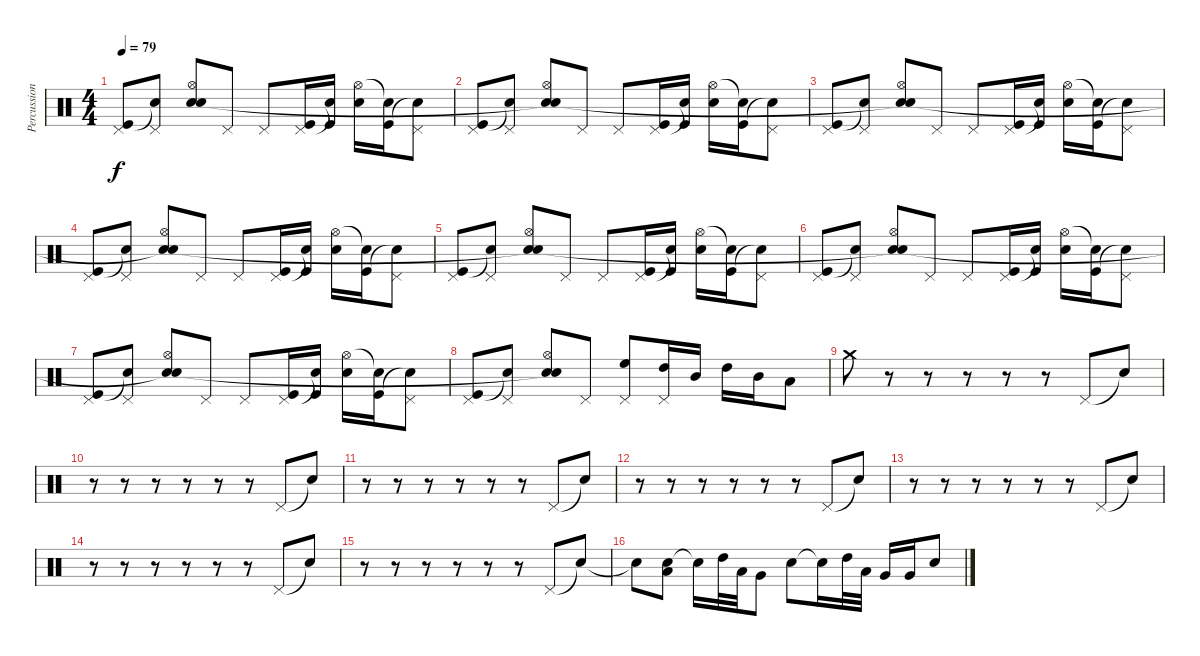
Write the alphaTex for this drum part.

\track ("Percussion" "Percussion") {instrument percussion}
\staff {score}
\articulation defaults
\ts (4 4)
\tempo 79
\clef neutral
\ks c
("Pedal Hi-Hat (hit)" "Kick (hit)").8{dy f} ("Pedal Hi-Hat (hit)" "Snare (hit)"{t}).8 ("Hi-Hat (open)" "Electric Snare (hit)" "Snare (hit)"{t}).8 "Pedal Hi-Hat (hit)".8 "Pedal Hi-Hat (hit)".8 ("Pedal Hi-Hat (hit)" "Kick (hit)").16 ("Snare (hit)"{t} "Kick (hit)").16 ("Hi-Hat (open)" "Electric Snare (hit)").16 ("Snare (hit)"{t} "Kick (hit)").16 ("Pedal Hi-Hat (hit)" "Snare (hit)"{t}).8 |
("Pedal Hi-Hat (hit)" "Kick (hit)").8 ("Pedal Hi-Hat (hit)" "Snare (hit)"{t}).8 ("Hi-Hat (open)" "Electric Snare (hit)" "Snare (hit)"{t}).8 "Pedal Hi-Hat (hit)".8 "Pedal Hi-Hat (hit)".8 ("Pedal Hi-Hat (hit)" "Kick (hit)").16 ("Snare (hit)"{t} "Kick (hit)").16 ("Hi-Hat (open)" "Electric Snare (hit)").16 ("Snare (hit)"{t} "Kick (hit)").16 ("Pedal Hi-Hat (hit)" "Snare (hit)"{t}).8 |
("Pedal Hi-Hat (hit)" "Kick (hit)").8 ("Pedal Hi-Hat (hit)" "Snare (hit)"{t}).8 ("Hi-Hat (open)" "Electric Snare (hit)" "Snare (hit)"{t}).8 "Pedal Hi-Hat (hit)".8 "Pedal Hi-Hat (hit)".8 ("Pedal Hi-Hat (hit)" "Kick (hit)").16 ("Snare (hit)"{t} "Kick (hit)").16 ("Hi-Hat (open)" "Electric Snare (hit)").16 ("Snare (hit)"{t} "Kick (hit)").16 ("Pedal Hi-Hat (hit)" "Snare (hit)"{t}).8 |
("Pedal Hi-Hat (hit)" "Kick (hit)").8 ("Pedal Hi-Hat (hit)" "Snare (hit)"{t}).8 ("Hi-Hat (open)" "Electric Snare (hit)" "Snare (hit)"{t}).8 "Pedal Hi-Hat (hit)".8 "Pedal Hi-Hat (hit)".8 ("Pedal Hi-Hat (hit)" "Kick (hit)").16 ("Snare (hit)"{t} "Kick (hit)").16 ("Hi-Hat (open)" "Electric Snare (hit)").16 ("Snare (hit)"{t} "Kick (hit)").16 ("Pedal Hi-Hat (hit)" "Snare (hit)"{t}).8 |
("Pedal Hi-Hat (hit)" "Kick (hit)").8 ("Pedal Hi-Hat (hit)" "Snare (hit)"{t}).8 ("Hi-Hat (open)" "Electric Snare (hit)" "Snare (hit)"{t}).8 "Pedal Hi-Hat (hit)".8 "Pedal Hi-Hat (hit)".8 ("Pedal Hi-Hat (hit)" "Kick (hit)").16 ("Snare (hit)"{t} "Kick (hit)").16 ("Hi-Hat (open)" "Electric Snare (hit)").16 ("Snare (hit)"{t} "Kick (hit)").16 ("Pedal Hi-Hat (hit)" "Snare (hit)"{t}).8 |
("Pedal Hi-Hat (hit)" "Kick (hit)").8 ("Pedal Hi-Hat (hit)" "Snare (hit)"{t}).8 ("Hi-Hat (open)" "Electric Snare (hit)" "Snare (hit)"{t}).8 "Pedal Hi-Hat (hit)".8 "Pedal Hi-Hat (hit)".8 ("Pedal Hi-Hat (hit)" "Kick (hit)").16 ("Snare (hit)"{t} "Kick (hit)").16 ("Hi-Hat (open)" "Electric Snare (hit)").16 ("Snare (hit)"{t} "Kick (hit)").16 ("Pedal Hi-Hat (hit)" "Snare (hit)"{t}).8 |
("Pedal Hi-Hat (hit)" "Kick (hit)").8 ("Pedal Hi-Hat (hit)" "Snare (hit)"{t}).8 ("Hi-Hat (open)" "Electric Snare (hit)" "Snare (hit)"{t}).8 "Pedal Hi-Hat (hit)".8 "Pedal Hi-Hat (hit)".8 ("Pedal Hi-Hat (hit)" "Kick (hit)").16 ("Snare (hit)"{t} "Kick (hit)").16 ("Hi-Hat (open)" "Electric Snare (hit)").16 ("Snare (hit)"{t} "Kick (hit)").16 ("Pedal Hi-Hat (hit)" "Snare (hit)"{t}).8 |
("Pedal Hi-Hat (hit)" "Kick (hit)").8 ("Pedal Hi-Hat (hit)" "Snare (hit)"{t}).8 ("Hi-Hat (open)" "Electric Snare (hit)" "Snare (hit)"{t}).8 "Pedal Hi-Hat (hit)".8 ("Pedal Hi-Hat (hit)" "High Floor Tom (hit)").8 ("Pedal Hi-Hat (hit)" "High Tom (hit)").16 "Mid Tom (hit)".16 "High Tom (hit)".16 "Mid Tom (hit)".16 "Low Tom (hit)".8 |
"Crash medium (hit)".8 r.8 r.8 r.8 r.8 r.8 "Pedal Hi-Hat (hit)".8 "Snare (hit)"{t}.8 |
r.8 r.8 r.8 r.8 r.8 r.8 "Pedal Hi-Hat (hit)".8 "Snare (hit)"{t}.8 |
r.8 r.8 r.8 r.8 r.8 r.8 "Pedal Hi-Hat (hit)".8 "Snare (hit)"{t}.8 |
r.8 r.8 r.8 r.8 r.8 r.8 "Pedal Hi-Hat (hit)".8 "Snare (hit)"{t}.8 |
r.8 r.8 r.8 r.8 r.8 r.8 "Pedal Hi-Hat (hit)".8 "Snare (hit)"{t}.8 |
r.8 r.8 r.8 r.8 r.8 r.8 "Pedal Hi-Hat (hit)".8 "Snare (hit)"{t}.8 |
r.8 r.8 r.8 r.8 r.8 r.8 "Pedal Hi-Hat (hit)".8 "Snare (hit)"{t}.8 |
"Snare (hit)"{t}.8 ("Electric Snare (hit)" "Low Floor Tom (hit)").8 "Snare (hit)"{t}.16 "High Tom (hit)".32 "Low Tom (hit)".32 "Very Low Tom (hit)".8 "Electric Snare (hit)".8 "Snare (hit)"{t}.16 "High Tom (hit)".32 "Low Tom (hit)".32 "Very Low Tom (hit)".16 "Very Low Tom (hit)".16 "Electric Snare (hit)".8
